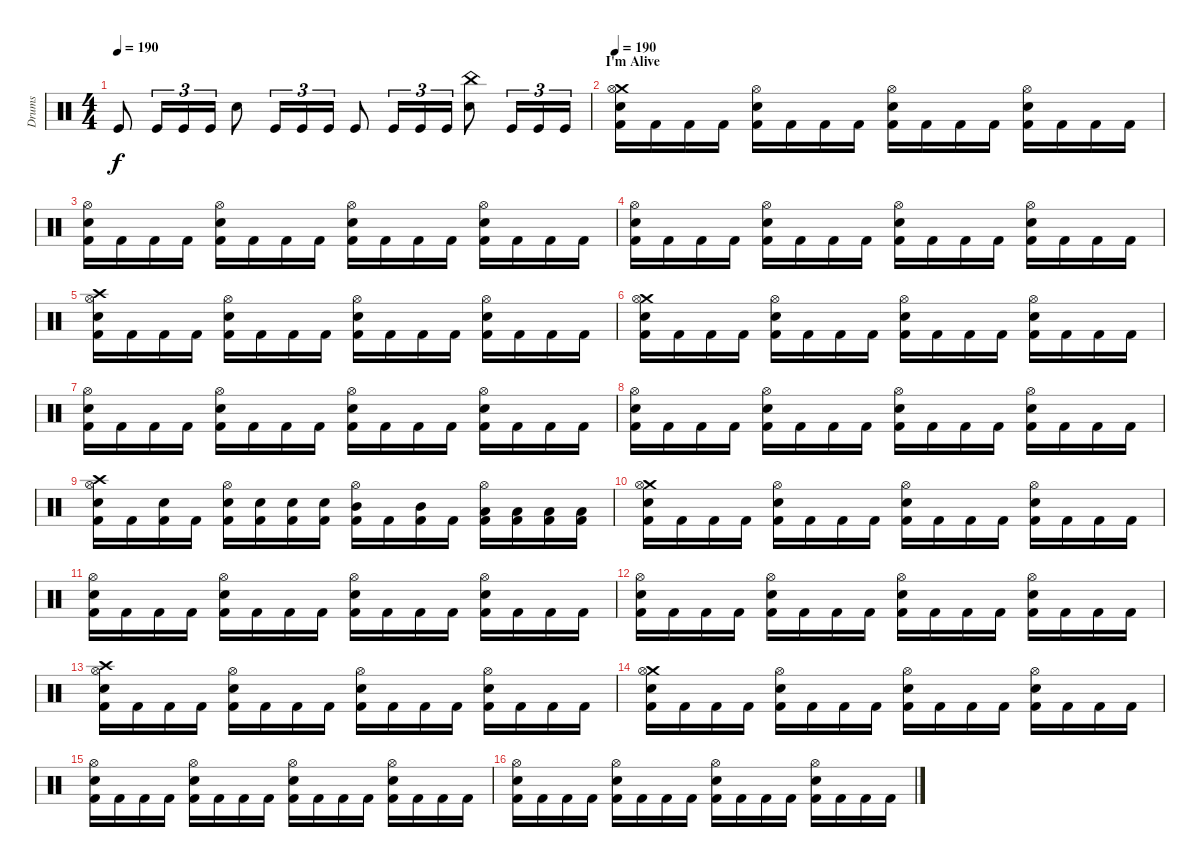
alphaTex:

\track ("Drums" "Drums") {instrument percussion}
\staff {score}
\articulation defaults
\ts (4 4)
\tempo 190
\clef neutral
\ks c "Kick (hit)".8{dy f} "Kick (hit)".16{tu (3 2)} "Kick (hit)".16{tu (3 2)} "Kick (hit)".16{tu (3 2)} "Snare (hit) 2".8 "Kick (hit)".16{tu (3 2)} "Kick (hit)".16{tu (3 2)} "Kick (hit)".16{tu (3 2)} "Kick (hit)".8 "Kick (hit)".16{tu (3 2)} "Kick (hit)".16{tu (3 2)} "Kick (hit)".16{tu (3 2)}
("Snare (hit) 2" "China (hit)").8 "Kick (hit)".16{tu (3 2)} "Kick (hit)".16{tu (3 2)} "Kick (hit)".16{tu (3 2)} |
\section ("" "I'm Alive")
\tempo 190
("Crash medium (hit)" "Hi-Hat (open)" "Electric Snare (hit)" "Kick (hit) 2").16 "Kick (hit) 2".16 "Kick (hit) 2".16 "Kick (hit) 2".16 ("Hi-Hat (open)" "Electric Snare (hit)" "Kick (hit) 2").16 "Kick (hit) 2".16 "Kick (hit) 2".16 "Kick (hit) 2".16 ("Hi-Hat (open)" "Electric Snare (hit)" "Kick (hit) 2").16 "Kick (hit) 2".16 "Kick (hit) 2".16 "Kick (hit) 2".16 ("Hi-Hat (open)" "Electric Snare (hit)" "Kick (hit) 2").16 "Kick (hit) 2".16 "Kick (hit) 2".16 "Kick (hit) 2".16 |
("Hi-Hat (open)" "Electric Snare (hit)" "Kick (hit) 2").16 "Kick (hit) 2".16 "Kick (hit) 2".16 "Kick (hit) 2".16 ("Hi-Hat (open)" "Electric Snare (hit)" "Kick (hit) 2").16 "Kick (hit) 2".16 "Kick (hit) 2".16 "Kick (hit) 2".16 ("Hi-Hat (open)" "Electric Snare (hit)" "Kick (hit) 2").16 "Kick (hit) 2".16 "Kick (hit) 2".16 "Kick (hit) 2".16 ("Hi-Hat (open)" "Electric Snare (hit)" "Kick (hit) 2").16 "Kick (hit) 2".16 "Kick (hit) 2".16 "Kick (hit) 2".16 |
("Hi-Hat (open)" "Electric Snare (hit)" "Kick (hit) 2").16 "Kick (hit) 2".16 "Kick (hit) 2".16 "Kick (hit) 2".16 ("Hi-Hat (open)" "Electric Snare (hit)" "Kick (hit) 2").16 "Kick (hit) 2".16 "Kick (hit) 2".16 "Kick (hit) 2".16 ("Hi-Hat (open)" "Electric Snare (hit)" "Kick (hit) 2").16 "Kick (hit) 2".16 "Kick (hit) 2".16 "Kick (hit) 2".16 ("Hi-Hat (open)" "Electric Snare (hit)" "Kick (hit) 2").16 "Kick (hit) 2".16 "Kick (hit) 2".16 "Kick (hit) 2".16 |
("Crash high (hit)" "Hi-Hat (open)" "Electric Snare (hit)" "Kick (hit) 2").16 "Kick (hit) 2".16 "Kick (hit) 2".16 "Kick (hit) 2".16 ("Hi-Hat (open)" "Electric Snare (hit)" "Kick (hit) 2").16 "Kick (hit) 2".16 "Kick (hit) 2".16 "Kick (hit) 2".16 ("Hi-Hat (open)" "Electric Snare (hit)" "Kick (hit) 2").16 "Kick (hit) 2".16 "Kick (hit) 2".16 "Kick (hit) 2".16 ("Hi-Hat (open)" "Electric Snare (hit)" "Kick (hit) 2").16 "Kick (hit) 2".16 "Kick (hit) 2".16 "Kick (hit) 2".16 |
("Crash medium (hit)" "Hi-Hat (open)" "Electric Snare (hit)" "Kick (hit) 2").16 "Kick (hit) 2".16 "Kick (hit) 2".16 "Kick (hit) 2".16 ("Hi-Hat (open)" "Electric Snare (hit)" "Kick (hit) 2").16 "Kick (hit) 2".16 "Kick (hit) 2".16 "Kick (hit) 2".16 ("Hi-Hat (open)" "Electric Snare (hit)" "Kick (hit) 2").16 "Kick (hit) 2".16 "Kick (hit) 2".16 "Kick (hit) 2".16 ("Hi-Hat (open)" "Electric Snare (hit)" "Kick (hit) 2").16 "Kick (hit) 2".16 "Kick (hit) 2".16 "Kick (hit) 2".16 |
("Hi-Hat (open)" "Electric Snare (hit)" "Kick (hit) 2").16 "Kick (hit) 2".16 "Kick (hit) 2".16 "Kick (hit) 2".16 ("Hi-Hat (open)" "Electric Snare (hit)" "Kick (hit) 2").16 "Kick (hit) 2".16 "Kick (hit) 2".16 "Kick (hit) 2".16 ("Hi-Hat (open)" "Electric Snare (hit)" "Kick (hit) 2").16 "Kick (hit) 2".16 "Kick (hit) 2".16 "Kick (hit) 2".16 ("Hi-Hat (open)" "Electric Snare (hit)" "Kick (hit) 2").16 "Kick (hit) 2".16 "Kick (hit) 2".16 "Kick (hit) 2".16 |
("Hi-Hat (open)" "Electric Snare (hit)" "Kick (hit) 2").16 "Kick (hit) 2".16 "Kick (hit) 2".16 "Kick (hit) 2".16 ("Hi-Hat (open)" "Electric Snare (hit)" "Kick (hit) 2").16 "Kick (hit) 2".16 "Kick (hit) 2".16 "Kick (hit) 2".16 ("Hi-Hat (open)" "Electric Snare (hit)" "Kick (hit) 2").16 "Kick (hit) 2".16 "Kick (hit) 2".16 "Kick (hit) 2".16 ("Hi-Hat (open)" "Electric Snare (hit)" "Kick (hit) 2").16 "Kick (hit) 2".16 "Kick (hit) 2".16 "Kick (hit) 2".16 |
("Crash high (hit)" "Hi-Hat (open)" "Electric Snare (hit)" "Kick (hit) 2").16 "Kick (hit) 2".16 ("Electric Snare (hit)" "Kick (hit) 2").16 "Kick (hit) 2".16 ("Hi-Hat (open)" "Electric Snare (hit)" "Kick (hit) 2").16 ("Electric Snare (hit)" "Kick (hit) 2").16 ("Electric Snare (hit)" "Kick (hit) 2").16 ("Electric Snare (hit)" "Kick (hit) 2").16 ("Hi-Hat (open)" "Mid Tom (hit)" "Kick (hit) 2").16 "Kick (hit) 2".16 ("Mid Tom (hit)" "Kick (hit) 2").16 "Kick (hit) 2".16 ("Hi-Hat (open)" "Low Tom (hit)" "Kick (hit) 2").16 ("Low Tom (hit)" "Kick (hit) 2").16 ("Low Tom (hit)" "Kick (hit) 2").16 ("Low Tom (hit)" "Kick (hit) 2").16 |
("Crash medium (hit)" "Hi-Hat (open)" "Electric Snare (hit)" "Kick (hit) 2").16 "Kick (hit) 2".16 "Kick (hit) 2".16 "Kick (hit) 2".16 ("Hi-Hat (open)" "Electric Snare (hit)" "Kick (hit) 2").16 "Kick (hit) 2".16 "Kick (hit) 2".16 "Kick (hit) 2".16 ("Hi-Hat (open)" "Electric Snare (hit)" "Kick (hit) 2").16 "Kick (hit) 2".16 "Kick (hit) 2".16 "Kick (hit) 2".16 ("Hi-Hat (open)" "Electric Snare (hit)" "Kick (hit) 2").16 "Kick (hit) 2".16 "Kick (hit) 2".16 "Kick (hit) 2".16 |
("Hi-Hat (open)" "Electric Snare (hit)" "Kick (hit) 2").16 "Kick (hit) 2".16 "Kick (hit) 2".16 "Kick (hit) 2".16 ("Hi-Hat (open)" "Electric Snare (hit)" "Kick (hit) 2").16 "Kick (hit) 2".16 "Kick (hit) 2".16 "Kick (hit) 2".16 ("Hi-Hat (open)" "Electric Snare (hit)" "Kick (hit) 2").16 "Kick (hit) 2".16 "Kick (hit) 2".16 "Kick (hit) 2".16 ("Hi-Hat (open)" "Electric Snare (hit)" "Kick (hit) 2").16 "Kick (hit) 2".16 "Kick (hit) 2".16 "Kick (hit) 2".16 |
("Hi-Hat (open)" "Electric Snare (hit)" "Kick (hit) 2").16 "Kick (hit) 2".16 "Kick (hit) 2".16 "Kick (hit) 2".16 ("Hi-Hat (open)" "Electric Snare (hit)" "Kick (hit) 2").16 "Kick (hit) 2".16 "Kick (hit) 2".16 "Kick (hit) 2".16 ("Hi-Hat (open)" "Electric Snare (hit)" "Kick (hit) 2").16 "Kick (hit) 2".16 "Kick (hit) 2".16 "Kick (hit) 2".16 ("Hi-Hat (open)" "Electric Snare (hit)" "Kick (hit) 2").16 "Kick (hit) 2".16 "Kick (hit) 2".16 "Kick (hit) 2".16 |
("Crash high (hit)" "Hi-Hat (open)" "Electric Snare (hit)" "Kick (hit) 2").16 "Kick (hit) 2".16 "Kick (hit) 2".16 "Kick (hit) 2".16 ("Hi-Hat (open)" "Electric Snare (hit)" "Kick (hit) 2").16 "Kick (hit) 2".16 "Kick (hit) 2".16 "Kick (hit) 2".16 ("Hi-Hat (open)" "Electric Snare (hit)" "Kick (hit) 2").16 "Kick (hit) 2".16 "Kick (hit) 2".16 "Kick (hit) 2".16 ("Hi-Hat (open)" "Electric Snare (hit)" "Kick (hit) 2").16 "Kick (hit) 2".16 "Kick (hit) 2".16 "Kick (hit) 2".16 |
("Crash medium (hit)" "Hi-Hat (open)" "Electric Snare (hit)" "Kick (hit) 2").16 "Kick (hit) 2".16 "Kick (hit) 2".16 "Kick (hit) 2".16 ("Hi-Hat (open)" "Electric Snare (hit)" "Kick (hit) 2").16 "Kick (hit) 2".16 "Kick (hit) 2".16 "Kick (hit) 2".16 ("Hi-Hat (open)" "Electric Snare (hit)" "Kick (hit) 2").16 "Kick (hit) 2".16 "Kick (hit) 2".16 "Kick (hit) 2".16 ("Hi-Hat (open)" "Electric Snare (hit)" "Kick (hit) 2").16 "Kick (hit) 2".16 "Kick (hit) 2".16 "Kick (hit) 2".16 |
("Hi-Hat (open)" "Electric Snare (hit)" "Kick (hit) 2").16 "Kick (hit) 2".16 "Kick (hit) 2".16 "Kick (hit) 2".16 ("Hi-Hat (open)" "Electric Snare (hit)" "Kick (hit) 2").16 "Kick (hit) 2".16 "Kick (hit) 2".16 "Kick (hit) 2".16 ("Hi-Hat (open)" "Electric Snare (hit)" "Kick (hit) 2").16 "Kick (hit) 2".16 "Kick (hit) 2".16 "Kick (hit) 2".16 ("Hi-Hat (open)" "Electric Snare (hit)" "Kick (hit) 2").16 "Kick (hit) 2".16 "Kick (hit) 2".16 "Kick (hit) 2".16 |
("Hi-Hat (open)" "Electric Snare (hit)" "Kick (hit) 2").16 "Kick (hit) 2".16 "Kick (hit) 2".16 "Kick (hit) 2".16 ("Hi-Hat (open)" "Electric Snare (hit)" "Kick (hit) 2").16 "Kick (hit) 2".16 "Kick (hit) 2".16 "Kick (hit) 2".16 ("Hi-Hat (open)" "Electric Snare (hit)" "Kick (hit) 2").16 "Kick (hit) 2".16 "Kick (hit) 2".16 "Kick (hit) 2".16 ("Hi-Hat (open)" "Electric Snare (hit)" "Kick (hit) 2").16 "Kick (hit) 2".16 "Kick (hit) 2".16 "Kick (hit) 2".16
